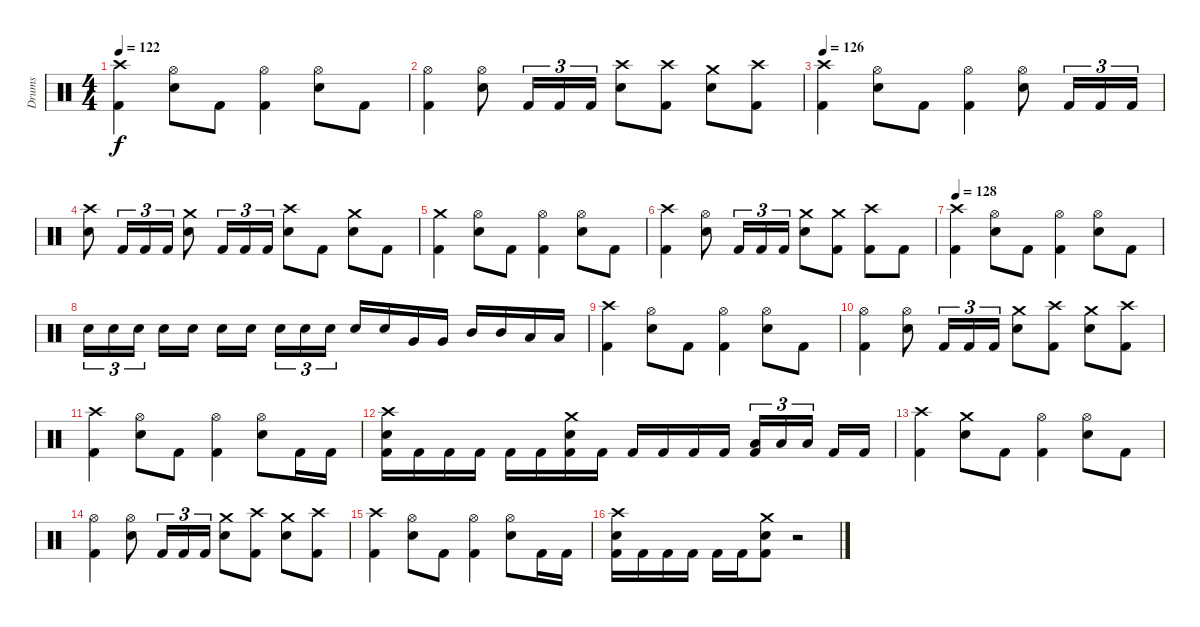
\track ("Drums" "Drums") {instrument percussion}
\staff {score}
\articulation defaults
\ts (4 4)
\tempo 122
\clef neutral
\ks c
("Crash high (hit)" "Kick (hit) 2").4{dy f} ("Hi-Hat (open)" "Electric Snare (hit)").8 "Kick (hit) 2".8 ("Hi-Hat (open)" "Kick (hit) 2").4 ("Hi-Hat (open)" "Electric Snare (hit)").8 "Kick (hit) 2".8 |
("Hi-Hat (open)" "Kick (hit) 2").4 ("Hi-Hat (open)" "Electric Snare (hit)").8 "Kick (hit) 2".16{tu (3 2)} "Kick (hit) 2".16{tu (3 2)} "Kick (hit) 2".16{tu (3 2)} ("Crash high (hit)" "Electric Snare (hit)").8 ("Crash high (hit)" "Kick (hit) 2").8 ("Crash medium (hit)" "Electric Snare (hit)").8 ("Crash high (hit)" "Kick (hit) 2").8 |
\tempo 126
("Crash high (hit)" "Kick (hit) 2").4 ("Hi-Hat (open)" "Electric Snare (hit)").8 "Kick (hit) 2".8 ("Hi-Hat (open)" "Kick (hit) 2").4 ("Hi-Hat (open)" "Electric Snare (hit)").8 "Kick (hit) 2".16{tu (3 2)} "Kick (hit) 2".16{tu (3 2)} "Kick (hit) 2".16{tu (3 2)} |
("Crash high (hit)" "Electric Snare (hit)").8 "Kick (hit) 2".16{tu (3 2)} "Kick (hit) 2".16{tu (3 2)} "Kick (hit) 2".16{tu (3 2)} ("Crash medium (hit)" "Electric Snare (hit)").8 "Kick (hit) 2".16{tu (3 2)} "Kick (hit) 2".16{tu (3 2)} "Kick (hit) 2".16{tu (3 2)} ("Crash high (hit)" "Electric Snare (hit)").8 "Kick (hit) 2".8 ("Crash medium (hit)" "Electric Snare (hit)").8 "Kick (hit) 2".8 |
("Crash medium (hit)" "Kick (hit) 2").4 ("Hi-Hat (open)" "Electric Snare (hit)").8 "Kick (hit) 2".8 ("Hi-Hat (open)" "Kick (hit) 2").4 ("Hi-Hat (open)" "Electric Snare (hit)").8 "Kick (hit) 2".8 |
("Crash high (hit)" "Kick (hit) 2").4 ("Hi-Hat (open)" "Electric Snare (hit)").8 "Kick (hit) 2".16{tu (3 2)} "Kick (hit) 2".16{tu (3 2)} "Kick (hit) 2".16{tu (3 2)} ("Crash medium (hit)" "Electric Snare (hit)").8 ("Crash medium (hit)" "Kick (hit) 2").8 ("Crash high (hit)" "Kick (hit) 2").8 "Kick (hit) 2".8 |
\tempo 128
("Crash high (hit)" "Kick (hit) 2").4 ("Hi-Hat (open)" "Electric Snare (hit)").8 "Kick (hit) 2".8 ("Hi-Hat (open)" "Kick (hit) 2").4 ("Hi-Hat (open)" "Electric Snare (hit)").8 "Kick (hit) 2".8 |
"Electric Snare (hit)".16{tu (3 2)} "Electric Snare (hit)".16{tu (3 2)} "Electric Snare (hit)".16{tu (3 2) beam splitsecondary} "Electric Snare (hit)".16 "Electric Snare (hit)".16 "Electric Snare (hit)".16 "Electric Snare (hit)".16{beam splitsecondary} "Electric Snare (hit)".16{tu (3 2)} "Electric Snare (hit)".16{tu (3 2)} "Electric Snare (hit)".16{tu (3 2)} "Electric Snare (hit)".16 "Electric Snare (hit)".16 "Very Low Tom (hit)".16 "Very Low Tom (hit)".16 "Mid Tom (hit)".16 "Mid Tom (hit)".16 "Low Tom (hit)".16 "Low Tom (hit)".16 |
("Crash high (hit)" "Kick (hit) 2").4 ("Hi-Hat (open)" "Electric Snare (hit)").8 "Kick (hit) 2".8 ("Hi-Hat (open)" "Kick (hit) 2").4 ("Hi-Hat (open)" "Electric Snare (hit)").8 "Kick (hit) 2".8 |
("Hi-Hat (open)" "Kick (hit) 2").4 ("Hi-Hat (open)" "Electric Snare (hit)").8 "Kick (hit) 2".16{tu (3 2)} "Kick (hit) 2".16{tu (3 2)} "Kick (hit) 2".16{tu (3 2)} ("Crash medium (hit)" "Electric Snare (hit)").8 ("Crash high (hit)" "Kick (hit) 2").8 ("Crash medium (hit)" "Electric Snare (hit)").8 ("Crash high (hit)" "Kick (hit) 2").8 |
("Crash high (hit)" "Kick (hit) 2").4 ("Hi-Hat (open)" "Electric Snare (hit)").8 "Kick (hit) 2".8 ("Hi-Hat (open)" "Kick (hit) 2").4 ("Hi-Hat (open)" "Electric Snare (hit)").8 "Kick (hit) 2".16 "Kick (hit) 2".16 |
("Crash high (hit)" "Electric Snare (hit)" "Kick (hit) 2").16 "Kick (hit) 2".16 "Kick (hit) 2".16 "Kick (hit) 2".16 "Kick (hit) 2".16 "Kick (hit) 2".16 ("Crash medium (hit)" "Electric Snare (hit)" "Kick (hit) 2").16 "Kick (hit) 2".16 "Kick (hit) 2".16 "Kick (hit) 2".16 "Kick (hit) 2".16 "Kick (hit) 2".16 ("Low Tom (hit)" "Kick (hit) 2").16{tu (3 2)} "Low Tom (hit)".16{tu (3 2)} "Low Tom (hit)".16{tu (3 2) beam splitsecondary} "Kick (hit) 2".16 "Kick (hit) 2".16 |
("Crash high (hit)" "Kick (hit) 2").4 ("Crash medium (hit)" "Electric Snare (hit)").8 "Kick (hit) 2".8 ("Hi-Hat (open)" "Kick (hit) 2").4 ("Hi-Hat (open)" "Electric Snare (hit)").8 "Kick (hit) 2".8 |
("Hi-Hat (open)" "Kick (hit) 2").4 ("Hi-Hat (open)" "Electric Snare (hit)").8 "Kick (hit) 2".16{tu (3 2)} "Kick (hit) 2".16{tu (3 2)} "Kick (hit) 2".16{tu (3 2)} ("Crash medium (hit)" "Electric Snare (hit)").8 ("Crash high (hit)" "Kick (hit) 2").8 ("Crash medium (hit)" "Electric Snare (hit)").8 ("Crash high (hit)" "Kick (hit) 2").8 |
("Crash high (hit)" "Kick (hit) 2").4 ("Hi-Hat (open)" "Electric Snare (hit)").8 "Kick (hit) 2".8 ("Hi-Hat (open)" "Kick (hit) 2").4 ("Hi-Hat (open)" "Electric Snare (hit)").8 "Kick (hit) 2".16 "Kick (hit) 2".16 |
("Crash high (hit)" "Electric Snare (hit)" "Kick (hit) 2").16 "Kick (hit) 2".16 "Kick (hit) 2".16 "Kick (hit) 2".16 "Kick (hit) 2".16 "Kick (hit) 2".16 ("Crash medium (hit)" "Electric Snare (hit)" "Kick (hit) 2").8 r.2
